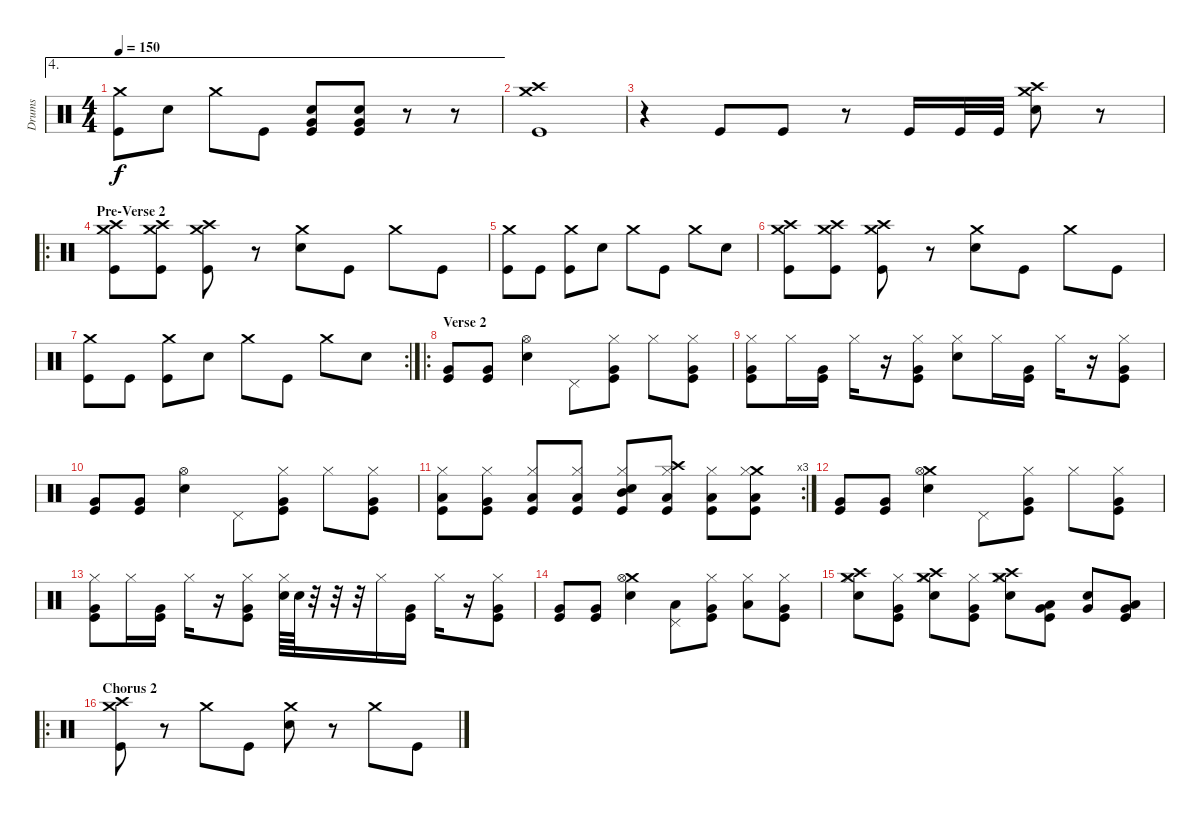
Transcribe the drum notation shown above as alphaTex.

\track ("Drums" "Drums") {instrument percussion}
\staff {score}
\articulation defaults
\ae 4
\ts (4 4)
\tempo 150
\clef neutral
\ks c
("Crash medium (hit)" "Kick (hit)").8{dy f} "Electric Snare (hit)".8 "Crash medium (hit)".8 "Kick (hit)".8 ("Electric Snare (hit)" "Very Low Tom (hit)" "Kick (hit)").8 ("Electric Snare (hit)" "Very Low Tom (hit)" "Kick (hit)").8 r.8 r.8 |
("Crash medium (hit)" "Crash high (hit)" "Kick (hit)").1 |
r.4 "Kick (hit)".8 "Kick (hit)".8 r.8 "Kick (hit)".16 "Kick (hit)".32 "Kick (hit)".32 ("Crash medium (hit)" "Crash high (hit)" "Electric Snare (hit)").8 r.8 |
\ro
\section ("" "Pre-Verse 2")
("Crash medium (hit)" "Crash high (hit)" "Kick (hit)").8 ("Crash medium (hit)" "Crash high (hit)" "Kick (hit)").8 ("Crash medium (hit)" "Crash high (hit)" "Kick (hit)").8 r.8 ("Crash medium (hit)" "Electric Snare (hit)").8 "Kick (hit)".8 "Crash medium (hit)".8 "Kick (hit)".8 |
("Crash medium (hit)" "Kick (hit)").8 "Kick (hit)".8 ("Crash medium (hit)" "Kick (hit)").8 "Electric Snare (hit)".8 "Crash medium (hit)".8 "Kick (hit)".8 "Crash medium (hit)".8 "Electric Snare (hit)".8 |
("Crash medium (hit)" "Crash high (hit)" "Kick (hit)").8 ("Crash medium (hit)" "Crash high (hit)" "Kick (hit)").8 ("Crash medium (hit)" "Crash high (hit)" "Kick (hit)").8 r.8 ("Crash medium (hit)" "Electric Snare (hit)").8 "Kick (hit)".8 "Crash medium (hit)".8 "Kick (hit)".8 |
\rc 2
("Crash medium (hit)" "Kick (hit)").8 "Kick (hit)".8 ("Crash medium (hit)" "Kick (hit)").8 "Electric Snare (hit)".8 "Crash medium (hit)".8 "Kick (hit)".8 "Crash medium (hit)".8 "Electric Snare (hit)".8 |
\ro
\section ("" "Verse 2")
("Very Low Tom (hit)" "Kick (hit)").8 ("Very Low Tom (hit)" "Kick (hit)").8 ("Hi-Hat (open)" "Electric Snare (hit)").4 "Pedal Hi-Hat (hit)".8 ("Hi-Hat (closed)" "Very Low Tom (hit)" "Kick (hit)").8 "Hi-Hat (closed)".8 ("Hi-Hat (closed)" "Very Low Tom (hit)" "Kick (hit)").8 |
("Hi-Hat (closed)" "Very Low Tom (hit)" "Kick (hit)").8 "Hi-Hat (closed)".16 ("Very Low Tom (hit)" "Kick (hit)").16 "Hi-Hat (closed)".16 r.16 ("Hi-Hat (closed)" "Very Low Tom (hit)" "Kick (hit)").8 ("Hi-Hat (closed)" "Electric Snare (hit)").8 "Hi-Hat (closed)".16 ("Very Low Tom (hit)" "Kick (hit)").16 "Hi-Hat (closed)".16 r.16 ("Hi-Hat (closed)" "Very Low Tom (hit)" "Kick (hit)").8 |
("Very Low Tom (hit)" "Kick (hit)").8 ("Very Low Tom (hit)" "Kick (hit)").8 ("Hi-Hat (open)" "Electric Snare (hit)").4 "Pedal Hi-Hat (hit)".8 ("Hi-Hat (closed)" "Very Low Tom (hit)" "Kick (hit)").8 "Hi-Hat (closed)".8 ("Hi-Hat (closed)" "Very Low Tom (hit)" "Kick (hit)").8 |
\rc 3
("Hi-Hat (closed)" "Low Tom (hit)" "Kick (hit)").8 ("Hi-Hat (closed)" "Very Low Tom (hit)" "Kick (hit)").8 ("Hi-Hat (closed)" "Low Floor Tom (hit)" "Kick (hit)").8 ("Hi-Hat (closed)" "Low Floor Tom (hit)" "Kick (hit)").8 ("Hi-Hat (closed)" "Electric Snare (hit)" "Mid Tom (hit)" "Kick (hit)").8 ("Crash high (hit)" "Hi-Hat (closed)" "Low Tom (hit)" "Kick (hit)").8 ("Hi-Hat (closed)" "Low Floor Tom (hit)" "Kick (hit)").8 ("Crash medium (hit)" "Hi-Hat (closed)" "Low Floor Tom (hit)" "Kick (hit)").8 |
("Very Low Tom (hit)" "Kick (hit)").8 ("Very Low Tom (hit)" "Kick (hit)").8 ("Crash medium (hit)" "Hi-Hat (open)" "Electric Snare (hit)").4 "Pedal Hi-Hat (hit)".8 ("Hi-Hat (closed)" "Very Low Tom (hit)" "Kick (hit)").8 "Hi-Hat (closed)".8 ("Hi-Hat (closed)" "Very Low Tom (hit)" "Kick (hit)").8 |
("Hi-Hat (closed)" "Very Low Tom (hit)" "Kick (hit)").8 "Hi-Hat (closed)".16 ("Very Low Tom (hit)" "Kick (hit)").16 "Hi-Hat (closed)".16 r.16 ("Hi-Hat (closed)" "Very Low Tom (hit)" "Kick (hit)").8 ("Hi-Hat (closed)" "Electric Snare (hit)").64 "Electric Snare (hit)".64 r.32 r.32 r.32 "Hi-Hat (closed)".16 ("Very Low Tom (hit)" "Kick (hit)").16 "Hi-Hat (closed)".16 r.16 ("Hi-Hat (closed)" "Very Low Tom (hit)" "Kick (hit)").8 |
("Very Low Tom (hit)" "Kick (hit)").8 ("Very Low Tom (hit)" "Kick (hit)").8 ("Crash medium (hit)" "Hi-Hat (open)" "Electric Snare (hit)").4 ("Pedal Hi-Hat (hit)" "Low Tom (hit)").8 ("Hi-Hat (closed)" "Very Low Tom (hit)" "Kick (hit)").8 ("Hi-Hat (closed)" "Low Tom (hit)").8 ("Hi-Hat (closed)" "Very Low Tom (hit)" "Kick (hit)").8 |
("Crash medium (hit)" "Crash high (hit)" "Hi-Hat (closed)" "Electric Snare (hit)").8 ("Hi-Hat (closed)" "Very Low Tom (hit)" "Kick (hit)").8 ("Crash medium (hit)" "Crash high (hit)" "Hi-Hat (closed)" "Electric Snare (hit)").8 ("Hi-Hat (closed)" "Very Low Tom (hit)" "Kick (hit)").8 ("Crash medium (hit)" "Crash high (hit)" "Hi-Hat (closed)" "Electric Snare (hit)").8 ("Low Tom (hit)" "Very Low Tom (hit)" "Kick (hit)").8 ("Very Low Tom (hit)" "Electric Snare (hit)").8 ("Low Floor Tom (hit)" "Very Low Tom (hit)" "Kick (hit)").8 |
\ro
\section ("" "Chorus 2")
("Crash medium (hit)" "Crash high (hit)" "Kick (hit)").8 r.8 "Crash medium (hit)".8 "Kick (hit)".8 ("Crash medium (hit)" "Electric Snare (hit)").8 r.8 "Crash medium (hit)".8 "Kick (hit)".8
